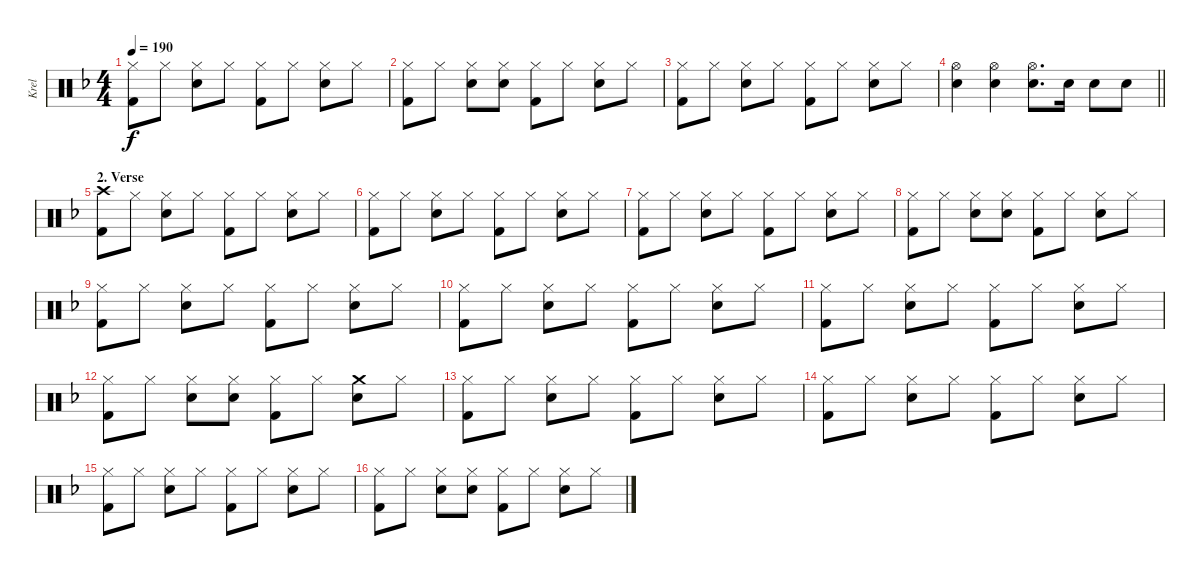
\track ("Krel" "Krel") {instrument percussion}
\staff {score}
\articulation defaults
\ts (4 4)
\tempo 190
\clef neutral
\ks f
("Hi-Hat (closed)" "Kick (hit) 2").8{dy f} "Hi-Hat (closed)".8 ("Hi-Hat (closed)" "Snare (hit) 2").8 "Hi-Hat (closed)".8 ("Hi-Hat (closed)" "Kick (hit) 2").8 "Hi-Hat (closed)".8 ("Hi-Hat (closed)" "Snare (hit) 2").8 "Hi-Hat (closed)".8 |
("Hi-Hat (closed)" "Kick (hit) 2").8 "Hi-Hat (closed)".8 ("Hi-Hat (closed)" "Snare (hit) 2").8 ("Hi-Hat (closed)" "Snare (hit) 2").8 ("Hi-Hat (closed)" "Kick (hit) 2").8 "Hi-Hat (closed)".8 ("Hi-Hat (closed)" "Snare (hit) 2").8 "Hi-Hat (closed)".8 |
("Hi-Hat (closed)" "Kick (hit) 2").8 "Hi-Hat (closed)".8 ("Hi-Hat (closed)" "Snare (hit) 2").8 "Hi-Hat (closed)".8 ("Hi-Hat (closed)" "Kick (hit) 2").8 "Hi-Hat (closed)".8 ("Hi-Hat (closed)" "Snare (hit) 2").8 "Hi-Hat (closed)".8 |
\barLineRight lightlight
("Hi-Hat (open)" "Snare (hit) 2").4 ("Hi-Hat (open)" "Snare (hit) 2").4 ("Hi-Hat (open)" "Snare (hit) 2").8{d} "Snare (hit) 2".16 "Snare (hit) 2".8 "Snare (hit) 2".8 |
\section ("" "2. Verse")
("Crash high (hit)" "Kick (hit) 2").8 "Hi-Hat (closed)".8 ("Hi-Hat (closed)" "Snare (hit) 2").8 "Hi-Hat (closed)".8 ("Hi-Hat (closed)" "Kick (hit) 2").8 "Hi-Hat (closed)".8 ("Hi-Hat (closed)" "Snare (hit) 2").8 "Hi-Hat (closed)".8 |
("Hi-Hat (closed)" "Kick (hit) 2").8 "Hi-Hat (closed)".8 ("Hi-Hat (closed)" "Snare (hit) 2").8 "Hi-Hat (closed)".8 ("Hi-Hat (closed)" "Kick (hit) 2").8 "Hi-Hat (closed)".8 ("Hi-Hat (closed)" "Snare (hit) 2").8 "Hi-Hat (closed)".8 |
("Hi-Hat (closed)" "Kick (hit) 2").8 "Hi-Hat (closed)".8 ("Hi-Hat (closed)" "Snare (hit) 2").8 "Hi-Hat (closed)".8 ("Hi-Hat (closed)" "Kick (hit) 2").8 "Hi-Hat (closed)".8 ("Hi-Hat (closed)" "Snare (hit) 2").8 "Hi-Hat (closed)".8 |
("Hi-Hat (closed)" "Kick (hit) 2").8 "Hi-Hat (closed)".8 ("Hi-Hat (closed)" "Snare (hit) 2").8 ("Hi-Hat (closed)" "Snare (hit) 2").8 ("Hi-Hat (closed)" "Kick (hit) 2").8 "Hi-Hat (closed)".8 ("Hi-Hat (closed)" "Snare (hit) 2").8 "Hi-Hat (closed)".8 |
("Hi-Hat (closed)" "Kick (hit) 2").8 "Hi-Hat (closed)".8 ("Hi-Hat (closed)" "Snare (hit) 2").8 "Hi-Hat (closed)".8 ("Hi-Hat (closed)" "Kick (hit) 2").8 "Hi-Hat (closed)".8 ("Hi-Hat (closed)" "Snare (hit) 2").8 "Hi-Hat (closed)".8 |
("Hi-Hat (closed)" "Kick (hit) 2").8 "Hi-Hat (closed)".8 ("Hi-Hat (closed)" "Snare (hit) 2").8 "Hi-Hat (closed)".8 ("Hi-Hat (closed)" "Kick (hit) 2").8 "Hi-Hat (closed)".8 ("Hi-Hat (closed)" "Snare (hit) 2").8 "Hi-Hat (closed)".8 |
("Hi-Hat (closed)" "Kick (hit) 2").8 "Hi-Hat (closed)".8 ("Hi-Hat (closed)" "Snare (hit) 2").8 "Hi-Hat (closed)".8 ("Hi-Hat (closed)" "Kick (hit) 2").8 "Hi-Hat (closed)".8 ("Hi-Hat (closed)" "Snare (hit) 2").8 "Hi-Hat (closed)".8 |
("Hi-Hat (closed)" "Kick (hit) 2").8 "Hi-Hat (closed)".8 ("Hi-Hat (closed)" "Snare (hit) 2").8 ("Hi-Hat (closed)" "Snare (hit) 2").8 ("Hi-Hat (closed)" "Kick (hit) 2").8 "Hi-Hat (closed)".8 ("Crash medium (hit)" "Snare (hit) 2").8 "Hi-Hat (closed)".8 |
("Hi-Hat (closed)" "Kick (hit) 2").8 "Hi-Hat (closed)".8 ("Hi-Hat (closed)" "Snare (hit) 2").8 "Hi-Hat (closed)".8 ("Hi-Hat (closed)" "Kick (hit) 2").8 "Hi-Hat (closed)".8 ("Hi-Hat (closed)" "Snare (hit) 2").8 "Hi-Hat (closed)".8 |
("Hi-Hat (closed)" "Kick (hit) 2").8 "Hi-Hat (closed)".8 ("Hi-Hat (closed)" "Snare (hit) 2").8 "Hi-Hat (closed)".8 ("Hi-Hat (closed)" "Kick (hit) 2").8 "Hi-Hat (closed)".8 ("Hi-Hat (closed)" "Snare (hit) 2").8 "Hi-Hat (closed)".8 |
("Hi-Hat (closed)" "Kick (hit) 2").8 "Hi-Hat (closed)".8 ("Hi-Hat (closed)" "Snare (hit) 2").8 "Hi-Hat (closed)".8 ("Hi-Hat (closed)" "Kick (hit) 2").8 "Hi-Hat (closed)".8 ("Hi-Hat (closed)" "Snare (hit) 2").8 "Hi-Hat (closed)".8 |
("Hi-Hat (closed)" "Kick (hit) 2").8 "Hi-Hat (closed)".8 ("Hi-Hat (closed)" "Snare (hit) 2").8 ("Hi-Hat (closed)" "Snare (hit) 2").8 ("Hi-Hat (closed)" "Kick (hit) 2").8 "Hi-Hat (closed)".8 ("Hi-Hat (closed)" "Snare (hit) 2").8 "Hi-Hat (closed)".8
